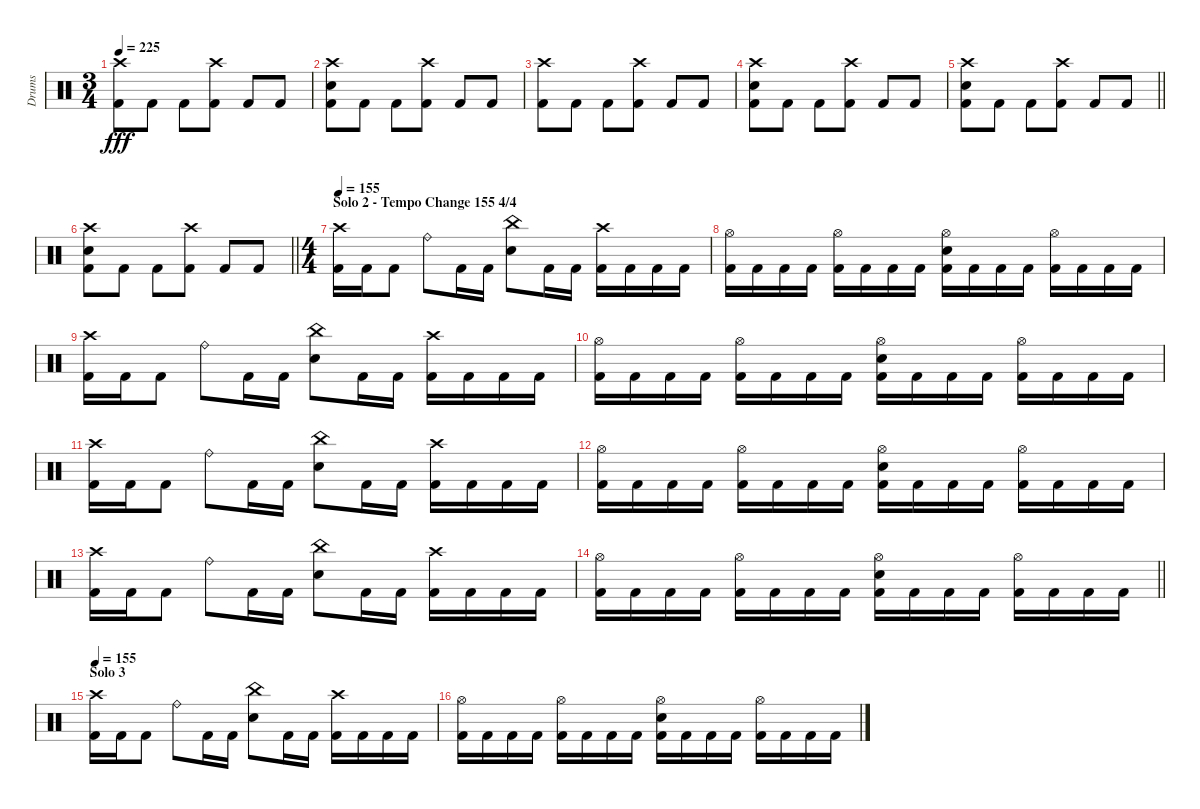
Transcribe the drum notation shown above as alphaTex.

\track ("Drums" "Drums") {instrument percussion}
\staff {score}
\articulation defaults
\ts (3 4)
\tempo 225
\clef neutral
\ks c
("Crash high (hit)" "Kick (hit) 2").8{dy fff} "Kick (hit) 2".8 "Kick (hit) 2".8 ("Crash high (hit)" "Kick (hit) 2").8 "Kick (hit) 2".8 "Kick (hit) 2".8 |
("Crash high (hit)" "Electric Snare (hit)" "Kick (hit) 2").8 "Kick (hit) 2".8 "Kick (hit) 2".8 ("Crash high (hit)" "Kick (hit) 2").8 "Kick (hit) 2".8 "Kick (hit) 2".8 |
("Crash high (hit)" "Kick (hit) 2").8 "Kick (hit) 2".8 "Kick (hit) 2".8 ("Crash high (hit)" "Kick (hit) 2").8 "Kick (hit) 2".8 "Kick (hit) 2".8 |
("Crash high (hit)" "Electric Snare (hit)" "Kick (hit) 2").8 "Kick (hit) 2".8 "Kick (hit) 2".8 ("Crash high (hit)" "Kick (hit) 2").8 "Kick (hit) 2".8 "Kick (hit) 2".8 |
\barLineRight lightlight
("Crash high (hit)" "Electric Snare (hit)" "Kick (hit) 2").8 "Kick (hit) 2".8 "Kick (hit) 2".8 ("Crash high (hit)" "Kick (hit) 2").8 "Kick (hit) 2".8 "Kick (hit) 2".8 |
\barLineRight lightlight
("Crash high (hit)" "Electric Snare (hit)" "Kick (hit) 2").8 "Kick (hit) 2".8 "Kick (hit) 2".8 ("Crash high (hit)" "Kick (hit) 2").8 "Kick (hit) 2".8 "Kick (hit) 2".8 |
\ts (4 4)
\section ("" "Solo 2 - Tempo Change 155 4/4")
\tempo 155
("Crash high (hit)" "Kick (hit) 2").16 "Kick (hit) 2".16 "Kick (hit) 2".8 "Ride (bell)".8 "Kick (hit) 2".16 "Kick (hit) 2".16 ("China (hit)" "Electric Snare (hit)").8 "Kick (hit) 2".16 "Kick (hit) 2".16 ("Crash high (hit)" "Kick (hit) 2").16 "Kick (hit) 2".16 "Kick (hit) 2".16 "Kick (hit) 2".16 |
("Hi-Hat (open)" "Kick (hit) 2").16 "Kick (hit) 2".16 "Kick (hit) 2".16 "Kick (hit) 2".16 ("Hi-Hat (open)" "Kick (hit) 2").16 "Kick (hit) 2".16 "Kick (hit) 2".16 "Kick (hit) 2".16 ("Hi-Hat (open)" "Electric Snare (hit)" "Kick (hit) 2").16 "Kick (hit) 2".16 "Kick (hit) 2".16 "Kick (hit) 2".16 ("Hi-Hat (open)" "Kick (hit) 2").16 "Kick (hit) 2".16 "Kick (hit) 2".16 "Kick (hit) 2".16 |
("Crash high (hit)" "Kick (hit) 2").16 "Kick (hit) 2".16 "Kick (hit) 2".8 "Ride (bell)".8 "Kick (hit) 2".16 "Kick (hit) 2".16 ("China (hit)" "Electric Snare (hit)").8 "Kick (hit) 2".16 "Kick (hit) 2".16 ("Crash high (hit)" "Kick (hit) 2").16 "Kick (hit) 2".16 "Kick (hit) 2".16 "Kick (hit) 2".16 |
("Hi-Hat (open)" "Kick (hit) 2").16 "Kick (hit) 2".16 "Kick (hit) 2".16 "Kick (hit) 2".16 ("Hi-Hat (open)" "Kick (hit) 2").16 "Kick (hit) 2".16 "Kick (hit) 2".16 "Kick (hit) 2".16 ("Hi-Hat (open)" "Electric Snare (hit)" "Kick (hit) 2").16 "Kick (hit) 2".16 "Kick (hit) 2".16 "Kick (hit) 2".16 ("Hi-Hat (open)" "Kick (hit) 2").16 "Kick (hit) 2".16 "Kick (hit) 2".16 "Kick (hit) 2".16 |
("Crash high (hit)" "Kick (hit) 2").16 "Kick (hit) 2".16 "Kick (hit) 2".8 "Ride (bell)".8 "Kick (hit) 2".16 "Kick (hit) 2".16 ("China (hit)" "Electric Snare (hit)").8 "Kick (hit) 2".16 "Kick (hit) 2".16 ("Crash high (hit)" "Kick (hit) 2").16 "Kick (hit) 2".16 "Kick (hit) 2".16 "Kick (hit) 2".16 |
("Hi-Hat (open)" "Kick (hit) 2").16 "Kick (hit) 2".16 "Kick (hit) 2".16 "Kick (hit) 2".16 ("Hi-Hat (open)" "Kick (hit) 2").16 "Kick (hit) 2".16 "Kick (hit) 2".16 "Kick (hit) 2".16 ("Hi-Hat (open)" "Electric Snare (hit)" "Kick (hit) 2").16 "Kick (hit) 2".16 "Kick (hit) 2".16 "Kick (hit) 2".16 ("Hi-Hat (open)" "Kick (hit) 2").16 "Kick (hit) 2".16 "Kick (hit) 2".16 "Kick (hit) 2".16 |
("Crash high (hit)" "Kick (hit) 2").16 "Kick (hit) 2".16 "Kick (hit) 2".8 "Ride (bell)".8 "Kick (hit) 2".16 "Kick (hit) 2".16 ("China (hit)" "Electric Snare (hit)").8 "Kick (hit) 2".16 "Kick (hit) 2".16 ("Crash high (hit)" "Kick (hit) 2").16 "Kick (hit) 2".16 "Kick (hit) 2".16 "Kick (hit) 2".16 |
\barLineRight lightlight
("Hi-Hat (open)" "Kick (hit) 2").16 "Kick (hit) 2".16 "Kick (hit) 2".16 "Kick (hit) 2".16 ("Hi-Hat (open)" "Kick (hit) 2").16 "Kick (hit) 2".16 "Kick (hit) 2".16 "Kick (hit) 2".16 ("Hi-Hat (open)" "Electric Snare (hit)" "Kick (hit) 2").16 "Kick (hit) 2".16 "Kick (hit) 2".16 "Kick (hit) 2".16 ("Hi-Hat (open)" "Kick (hit) 2").16 "Kick (hit) 2".16 "Kick (hit) 2".16 "Kick (hit) 2".16 |
\section ("" "Solo 3")
\tempo 155
("Crash high (hit)" "Kick (hit) 2").16 "Kick (hit) 2".16 "Kick (hit) 2".8 "Ride (bell)".8 "Kick (hit) 2".16 "Kick (hit) 2".16 ("China (hit)" "Electric Snare (hit)").8 "Kick (hit) 2".16 "Kick (hit) 2".16 ("Crash high (hit)" "Kick (hit) 2").16 "Kick (hit) 2".16 "Kick (hit) 2".16 "Kick (hit) 2".16 |
("Hi-Hat (open)" "Kick (hit) 2").16 "Kick (hit) 2".16 "Kick (hit) 2".16 "Kick (hit) 2".16 ("Hi-Hat (open)" "Kick (hit) 2").16 "Kick (hit) 2".16 "Kick (hit) 2".16 "Kick (hit) 2".16 ("Hi-Hat (open)" "Electric Snare (hit)" "Kick (hit) 2").16 "Kick (hit) 2".16 "Kick (hit) 2".16 "Kick (hit) 2".16 ("Hi-Hat (open)" "Kick (hit) 2").16 "Kick (hit) 2".16 "Kick (hit) 2".16 "Kick (hit) 2".16
